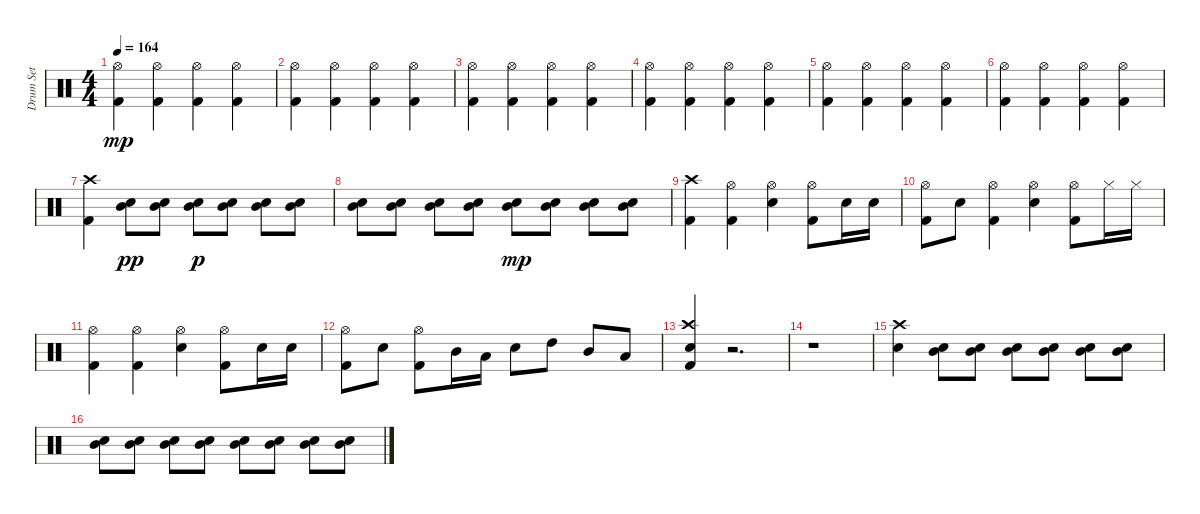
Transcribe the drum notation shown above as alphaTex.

\track ("Drum Set" "Drum Set") {instrument percussion}
\staff {score}
\articulation defaults
\ts (4 4)
\tempo 164
\clef neutral
\ks c
("Kick (hit) 2" "Hi-Hat (open)").4{dy mp} ("Kick (hit) 2" "Hi-Hat (open)").4 ("Kick (hit) 2" "Hi-Hat (open)").4 ("Kick (hit) 2" "Hi-Hat (open)").4 |
("Kick (hit) 2" "Hi-Hat (open)").4 ("Kick (hit) 2" "Hi-Hat (open)").4 ("Kick (hit) 2" "Hi-Hat (open)").4 ("Kick (hit) 2" "Hi-Hat (open)").4 |
("Kick (hit) 2" "Hi-Hat (open)").4 ("Kick (hit) 2" "Hi-Hat (open)").4 ("Kick (hit) 2" "Hi-Hat (open)").4 ("Kick (hit) 2" "Hi-Hat (open)").4 |
("Kick (hit) 2" "Hi-Hat (open)").4 ("Kick (hit) 2" "Hi-Hat (open)").4 ("Kick (hit) 2" "Hi-Hat (open)").4 ("Kick (hit) 2" "Hi-Hat (open)").4 |
("Kick (hit) 2" "Hi-Hat (open)").4 ("Kick (hit) 2" "Hi-Hat (open)").4 ("Kick (hit) 2" "Hi-Hat (open)").4 ("Kick (hit) 2" "Hi-Hat (open)").4 |
("Kick (hit) 2" "Hi-Hat (open)").4 ("Kick (hit) 2" "Hi-Hat (open)").4 ("Kick (hit) 2" "Hi-Hat (open)").4 ("Kick (hit) 2" "Hi-Hat (open)").4 |
("Kick (hit) 2" "Crash high (hit)").4 ("Snare (hit) 2" "Mid Tom (hit)").8{dy pp} ("Snare (hit) 2" "Mid Tom (hit)").8 ("Snare (hit) 2" "Mid Tom (hit)").8{dy p} ("Snare (hit) 2" "Mid Tom (hit)").8 ("Snare (hit) 2" "Mid Tom (hit)").8 ("Snare (hit) 2" "Mid Tom (hit)").8 |
("Snare (hit) 2" "Mid Tom (hit)").8 ("Snare (hit) 2" "Mid Tom (hit)").8 ("Snare (hit) 2" "Mid Tom (hit)").8 ("Snare (hit) 2" "Mid Tom (hit)").8 ("Snare (hit) 2" "Mid Tom (hit)").8{dy mp} ("Snare (hit) 2" "Mid Tom (hit)").8 ("Snare (hit) 2" "Mid Tom (hit)").8 ("Snare (hit) 2" "Mid Tom (hit)").8 |
("Kick (hit) 2" "Crash high (hit)").4 ("Kick (hit) 2" "Hi-Hat (open)").4 ("Snare (hit) 2" "Hi-Hat (open)").4 ("Kick (hit) 2" "Hi-Hat (open)").8 "Snare (hit) 2".16 "Snare (hit) 2".16 |
("Kick (hit) 2" "Hi-Hat (open)").8 "Snare (hit) 2".8 ("Kick (hit) 2" "Hi-Hat (open)").4 ("Snare (hit) 2" "Hi-Hat (open)").4 ("Kick (hit) 2" "Hi-Hat (open)").8 "Hi-Hat (closed)".16 "Hi-Hat (closed)".16 |
("Kick (hit) 2" "Hi-Hat (open)").4 ("Kick (hit) 2" "Hi-Hat (open)").4 ("Snare (hit) 2" "Hi-Hat (open)").4 ("Kick (hit) 2" "Hi-Hat (open)").8 "Snare (hit) 2".16 "Snare (hit) 2".16 |
("Kick (hit) 2" "Hi-Hat (open)").8 "Snare (hit) 2".8 ("Kick (hit) 2" "Hi-Hat (open)").8 "Mid Tom (hit)".16 "Low Tom (hit)".16 "Snare (hit) 2".8 "High Tom (hit)".8 "Mid Tom (hit)".8 "Low Tom (hit)".8 |
("Kick (hit) 2" "Snare (hit) 2" "Crash high (hit)").4 r.2{d} |
r.1 |
("Snare (hit) 2" "Crash high (hit)").4 ("Snare (hit) 2" "Mid Tom (hit)").8 ("Snare (hit) 2" "Mid Tom (hit)").8 ("Snare (hit) 2" "Mid Tom (hit)").8 ("Snare (hit) 2" "Mid Tom (hit)").8 ("Snare (hit) 2" "Mid Tom (hit)").8 ("Snare (hit) 2" "Mid Tom (hit)").8 |
("Snare (hit) 2" "Mid Tom (hit)").8 ("Snare (hit) 2" "Mid Tom (hit)").8 ("Snare (hit) 2" "Mid Tom (hit)").8 ("Snare (hit) 2" "Mid Tom (hit)").8 ("Snare (hit) 2" "Mid Tom (hit)").8 ("Snare (hit) 2" "Mid Tom (hit)").8 ("Snare (hit) 2" "Mid Tom (hit)").8 ("Snare (hit) 2" "Mid Tom (hit)").8
